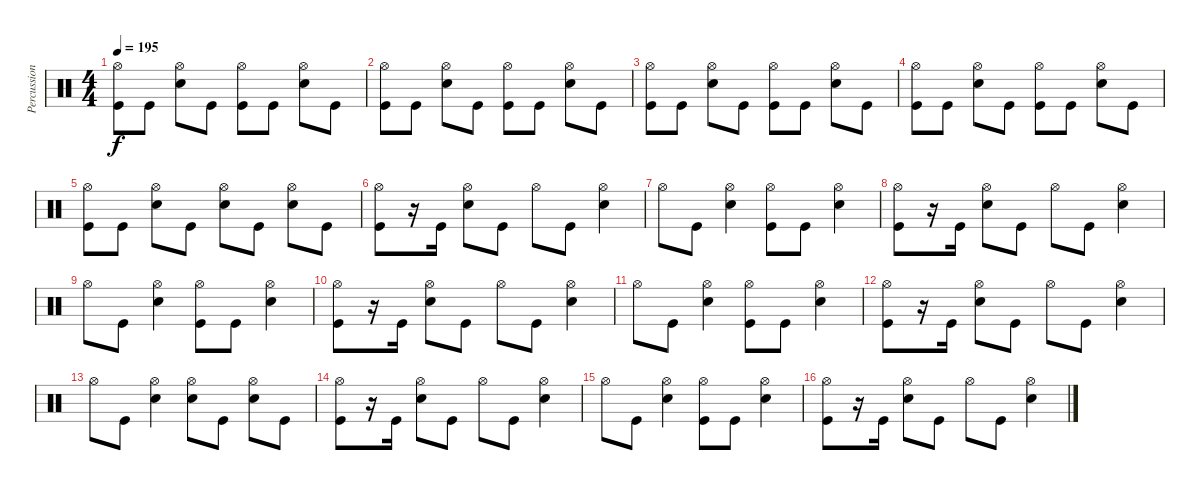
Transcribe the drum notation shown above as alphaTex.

\track ("Percussion" "Percussion") {instrument percussion}
\staff {score}
\articulation defaults
\ts (4 4)
\tempo 195
\clef neutral
\ks c
("Hi-Hat (open)" "Kick (hit)").8{dy f} "Kick (hit)".8 ("Hi-Hat (open)" "Snare (hit) 2").8 "Kick (hit)".8 ("Hi-Hat (open)" "Kick (hit)").8 "Kick (hit)".8 ("Hi-Hat (open)" "Snare (hit) 2").8 "Kick (hit)".8 |
("Hi-Hat (open)" "Kick (hit)").8 "Kick (hit)".8 ("Hi-Hat (open)" "Snare (hit) 2").8 "Kick (hit)".8 ("Hi-Hat (open)" "Kick (hit)").8 "Kick (hit)".8 ("Hi-Hat (open)" "Snare (hit) 2").8 "Kick (hit)".8 |
("Hi-Hat (open)" "Kick (hit)").8 "Kick (hit)".8 ("Hi-Hat (open)" "Snare (hit) 2").8 "Kick (hit)".8 ("Hi-Hat (open)" "Kick (hit)").8 "Kick (hit)".8 ("Hi-Hat (open)" "Snare (hit) 2").8 "Kick (hit)".8 |
("Hi-Hat (open)" "Kick (hit)").8 "Kick (hit)".8 ("Hi-Hat (open)" "Snare (hit) 2").8 "Kick (hit)".8 ("Hi-Hat (open)" "Kick (hit)").8 "Kick (hit)".8 ("Hi-Hat (open)" "Snare (hit) 2").8 "Kick (hit)".8 |
("Hi-Hat (open)" "Kick (hit)").8 "Kick (hit)".8 ("Hi-Hat (open)" "Snare (hit) 2").8 "Kick (hit)".8 ("Hi-Hat (open)" "Snare (hit) 2").8 "Kick (hit)".8 ("Hi-Hat (open)" "Snare (hit) 2").8 "Kick (hit)".8 |
("Hi-Hat (open)" "Kick (hit)").8 r.16 "Kick (hit)".16 ("Hi-Hat (open)" "Snare (hit) 2").8 "Kick (hit)".8 "Hi-Hat (open)".8 "Kick (hit)".8 ("Hi-Hat (open)" "Snare (hit) 2").4 |
"Hi-Hat (open)".8 "Kick (hit)".8 ("Hi-Hat (open)" "Snare (hit) 2").4 ("Hi-Hat (open)" "Kick (hit)").8 "Kick (hit)".8 ("Hi-Hat (open)" "Snare (hit) 2").4 |
("Hi-Hat (open)" "Kick (hit)").8 r.16 "Kick (hit)".16 ("Hi-Hat (open)" "Snare (hit) 2").8 "Kick (hit)".8 "Hi-Hat (open)".8 "Kick (hit)".8 ("Hi-Hat (open)" "Snare (hit) 2").4 |
"Hi-Hat (open)".8 "Kick (hit)".8 ("Hi-Hat (open)" "Snare (hit) 2").4 ("Hi-Hat (open)" "Kick (hit)").8 "Kick (hit)".8 ("Hi-Hat (open)" "Snare (hit) 2").4 |
("Hi-Hat (open)" "Kick (hit)").8 r.16 "Kick (hit)".16 ("Hi-Hat (open)" "Snare (hit) 2").8 "Kick (hit)".8 "Hi-Hat (open)".8 "Kick (hit)".8 ("Hi-Hat (open)" "Snare (hit) 2").4 |
"Hi-Hat (open)".8 "Kick (hit)".8 ("Hi-Hat (open)" "Snare (hit) 2").4 ("Hi-Hat (open)" "Kick (hit)").8 "Kick (hit)".8 ("Hi-Hat (open)" "Snare (hit) 2").4 |
("Hi-Hat (open)" "Kick (hit)").8 r.16 "Kick (hit)".16 ("Hi-Hat (open)" "Snare (hit) 2").8 "Kick (hit)".8 "Hi-Hat (open)".8 "Kick (hit)".8 ("Hi-Hat (open)" "Snare (hit) 2").4 |
"Hi-Hat (open)".8 "Kick (hit)".8 ("Hi-Hat (open)" "Snare (hit) 2").4 ("Hi-Hat (open)" "Snare (hit) 2").8 "Kick (hit)".8 ("Hi-Hat (open)" "Snare (hit) 2").8 "Kick (hit)".8 |
("Hi-Hat (open)" "Kick (hit)").8 r.16 "Kick (hit)".16 ("Hi-Hat (open)" "Snare (hit) 2").8 "Kick (hit)".8 "Hi-Hat (open)".8 "Kick (hit)".8 ("Hi-Hat (open)" "Snare (hit) 2").4 |
"Hi-Hat (open)".8 "Kick (hit)".8 ("Hi-Hat (open)" "Snare (hit) 2").4 ("Hi-Hat (open)" "Kick (hit)").8 "Kick (hit)".8 ("Hi-Hat (open)" "Snare (hit) 2").4 |
("Hi-Hat (open)" "Kick (hit)").8 r.16 "Kick (hit)".16 ("Hi-Hat (open)" "Snare (hit) 2").8 "Kick (hit)".8 "Hi-Hat (open)".8 "Kick (hit)".8 ("Hi-Hat (open)" "Snare (hit) 2").4
